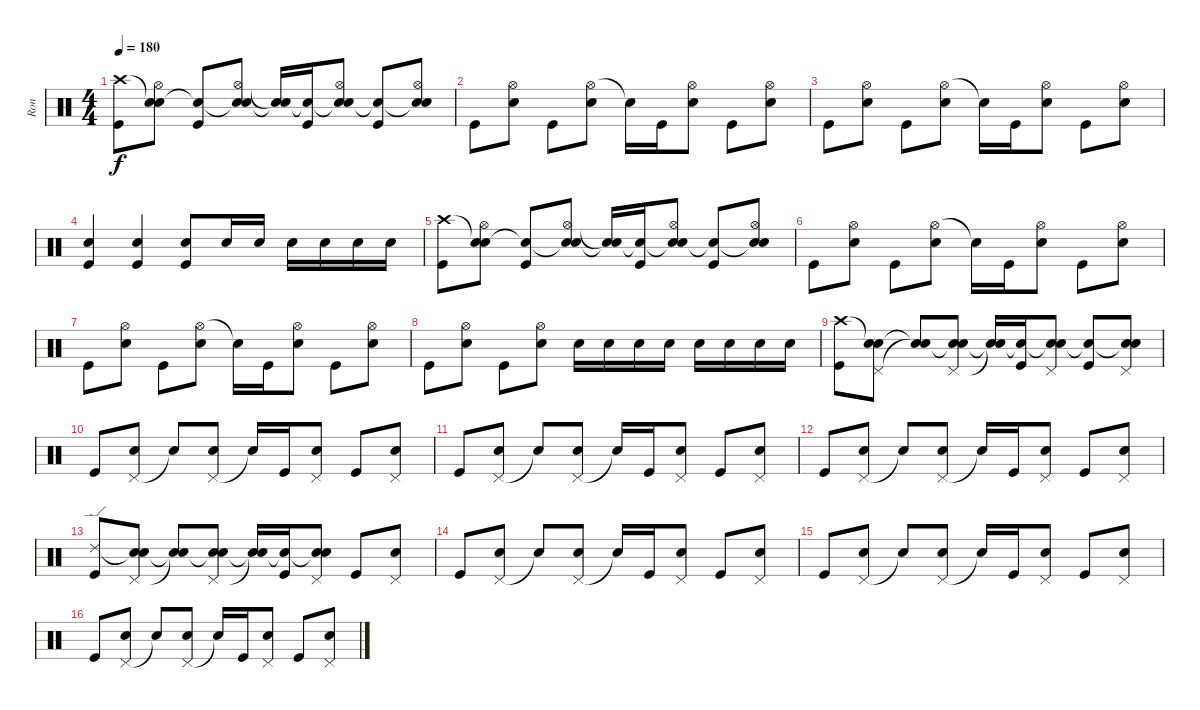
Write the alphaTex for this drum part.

\track ("Ron" "Ron") {instrument percussion}
\staff {score}
\articulation defaults
\ts (4 4)
\tempo 180
\clef neutral
\ks c
("Crash high (hit)" "Kick (hit)").8{dy f} ("Snare (hit)"{t} "Hi-Hat (open)" "Electric Snare (hit)").8 ("Snare (hit)"{t} "Kick (hit)").8 ("Snare (hit)"{t} "Hi-Hat (open)" "Electric Snare (hit)").8 ("Snare (hit)"{t} "Snare (hit)"{t}).16 ("Snare (hit)"{t} "Kick (hit)").16 ("Snare (hit)"{t} "Hi-Hat (open)" "Electric Snare (hit)").8 ("Snare (hit)"{t} "Kick (hit)").8 ("Snare (hit)"{t} "Hi-Hat (open)" "Electric Snare (hit)").8 |
"Kick (hit)".8 ("Hi-Hat (open)" "Electric Snare (hit)").8 "Kick (hit)".8 ("Hi-Hat (open)" "Electric Snare (hit)").8 "Snare (hit)"{t}.16 "Kick (hit)".16 ("Hi-Hat (open)" "Electric Snare (hit)").8 "Kick (hit)".8 ("Hi-Hat (open)" "Electric Snare (hit)").8 |
"Kick (hit)".8 ("Hi-Hat (open)" "Electric Snare (hit)").8 "Kick (hit)".8 ("Hi-Hat (open)" "Electric Snare (hit)").8 "Snare (hit)"{t}.16 "Kick (hit)".16 ("Hi-Hat (open)" "Electric Snare (hit)").8 "Kick (hit)".8 ("Hi-Hat (open)" "Electric Snare (hit)").8 |
("Electric Snare (hit)" "Kick (hit)").4 ("Electric Snare (hit)" "Kick (hit)").4 ("Electric Snare (hit)" "Kick (hit)").8 "Electric Snare (hit)".16 "Electric Snare (hit)".16 "Electric Snare (hit)".16 "Electric Snare (hit)".16 "Electric Snare (hit)".16 "Electric Snare (hit)".16 |
("Crash high (hit)" "Kick (hit)").8 ("Snare (hit)"{t} "Hi-Hat (open)" "Electric Snare (hit)").8 ("Snare (hit)"{t} "Kick (hit)").8 ("Snare (hit)"{t} "Hi-Hat (open)" "Electric Snare (hit)").8 ("Snare (hit)"{t} "Snare (hit)"{t}).16 ("Snare (hit)"{t} "Kick (hit)").16 ("Snare (hit)"{t} "Hi-Hat (open)" "Electric Snare (hit)").8 ("Snare (hit)"{t} "Kick (hit)").8 ("Snare (hit)"{t} "Hi-Hat (open)" "Electric Snare (hit)").8 |
"Kick (hit)".8 ("Hi-Hat (open)" "Electric Snare (hit)").8 "Kick (hit)".8 ("Hi-Hat (open)" "Electric Snare (hit)").8 "Snare (hit)"{t}.16 "Kick (hit)".16 ("Hi-Hat (open)" "Electric Snare (hit)").8 "Kick (hit)".8 ("Hi-Hat (open)" "Electric Snare (hit)").8 |
"Kick (hit)".8 ("Hi-Hat (open)" "Electric Snare (hit)").8 "Kick (hit)".8 ("Hi-Hat (open)" "Electric Snare (hit)").8 "Snare (hit)"{t}.16 "Kick (hit)".16 ("Hi-Hat (open)" "Electric Snare (hit)").8 "Kick (hit)".8 ("Hi-Hat (open)" "Electric Snare (hit)").8 |
"Kick (hit)".8 ("Hi-Hat (open)" "Electric Snare (hit)").8 "Kick (hit)".8 ("Hi-Hat (open)" "Electric Snare (hit)").8 "Electric Snare (hit)".16 "Electric Snare (hit)".16 "Electric Snare (hit)".16 "Electric Snare (hit)".16 "Electric Snare (hit)".16 "Electric Snare (hit)".16 "Electric Snare (hit)".16 "Electric Snare (hit)".16 |
("Crash high (hit)" "Kick (hit)").8 ("Snare (hit)"{t} "Pedal Hi-Hat (hit)" "Electric Snare (hit)").8 ("Snare (hit)"{t} "Snare (hit)"{t}).8 ("Snare (hit)"{t} "Pedal Hi-Hat (hit)" "Electric Snare (hit)").8 ("Snare (hit)"{t} "Snare (hit)"{t}).16 ("Snare (hit)"{t} "Kick (hit)").16 ("Snare (hit)"{t} "Pedal Hi-Hat (hit)" "Electric Snare (hit)").8 ("Snare (hit)"{t} "Kick (hit)").8 ("Snare (hit)"{t} "Pedal Hi-Hat (hit)" "Electric Snare (hit)").8 |
"Kick (hit)".8 ("Pedal Hi-Hat (hit)" "Electric Snare (hit)").8 "Snare (hit)"{t}.8 ("Pedal Hi-Hat (hit)" "Electric Snare (hit)").8 "Snare (hit)"{t}.16 "Kick (hit)".16 ("Pedal Hi-Hat (hit)" "Electric Snare (hit)").8 "Kick (hit)".8 ("Pedal Hi-Hat (hit)" "Electric Snare (hit)").8 |
"Kick (hit)".8 ("Pedal Hi-Hat (hit)" "Electric Snare (hit)").8 "Snare (hit)"{t}.8 ("Pedal Hi-Hat (hit)" "Electric Snare (hit)").8 "Snare (hit)"{t}.16 "Kick (hit)".16 ("Pedal Hi-Hat (hit)" "Electric Snare (hit)").8 "Kick (hit)".8 ("Pedal Hi-Hat (hit)" "Electric Snare (hit)").8 |
"Kick (hit)".8 ("Pedal Hi-Hat (hit)" "Electric Snare (hit)").8 "Snare (hit)"{t}.8 ("Pedal Hi-Hat (hit)" "Electric Snare (hit)").8 "Snare (hit)"{t}.16 "Kick (hit)".16 ("Pedal Hi-Hat (hit)" "Electric Snare (hit)").8 "Kick (hit)".8 ("Pedal Hi-Hat (hit)" "Electric Snare (hit)").8 |
("Ride (edge) 2" "Kick (hit)").8 ("Snare (hit)"{t} "Pedal Hi-Hat (hit)" "Electric Snare (hit)").8 ("Snare (hit)"{t} "Snare (hit)"{t}).8 ("Snare (hit)"{t} "Pedal Hi-Hat (hit)" "Electric Snare (hit)").8 ("Snare (hit)"{t} "Snare (hit)"{t}).16 ("Snare (hit)"{t} "Kick (hit)").16 ("Snare (hit)"{t} "Pedal Hi-Hat (hit)" "Electric Snare (hit)").8 "Kick (hit)".8 ("Pedal Hi-Hat (hit)" "Electric Snare (hit)").8 |
"Kick (hit)".8 ("Pedal Hi-Hat (hit)" "Electric Snare (hit)").8 "Snare (hit)"{t}.8 ("Pedal Hi-Hat (hit)" "Electric Snare (hit)").8 "Snare (hit)"{t}.16 "Kick (hit)".16 ("Pedal Hi-Hat (hit)" "Electric Snare (hit)").8 "Kick (hit)".8 ("Pedal Hi-Hat (hit)" "Electric Snare (hit)").8 |
"Kick (hit)".8 ("Pedal Hi-Hat (hit)" "Electric Snare (hit)").8 "Snare (hit)"{t}.8 ("Pedal Hi-Hat (hit)" "Electric Snare (hit)").8 "Snare (hit)"{t}.16 "Kick (hit)".16 ("Pedal Hi-Hat (hit)" "Electric Snare (hit)").8 "Kick (hit)".8 ("Pedal Hi-Hat (hit)" "Electric Snare (hit)").8 |
"Kick (hit)".8 ("Pedal Hi-Hat (hit)" "Electric Snare (hit)").8 "Snare (hit)"{t}.8 ("Pedal Hi-Hat (hit)" "Electric Snare (hit)").8 "Snare (hit)"{t}.16 "Kick (hit)".16 ("Pedal Hi-Hat (hit)" "Electric Snare (hit)").8 "Kick (hit)".8 ("Pedal Hi-Hat (hit)" "Electric Snare (hit)").8
